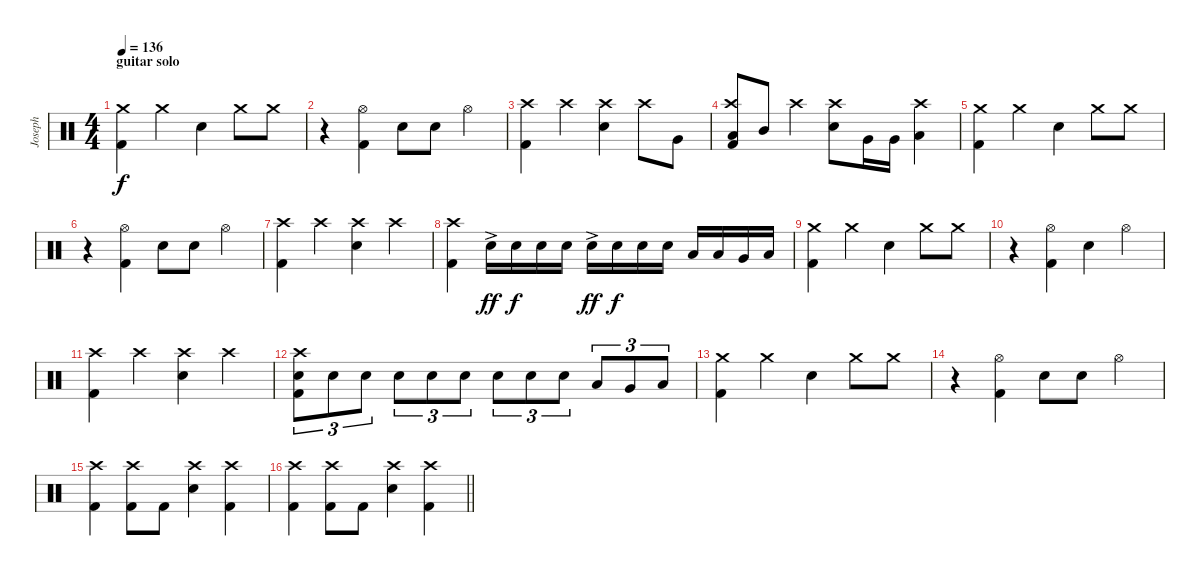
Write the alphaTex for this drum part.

\track ("Joseph" "Joseph") {instrument percussion}
\staff {score}
\articulation defaults
\ts (4 4)
\section ("" "guitar solo")
\tempo 136
\clef neutral
\ks c
("Crash medium (hit)" "Kick (hit) 2").4{dy f} "Crash medium (hit)".4 "Electric Snare (hit)".4 "Crash medium (hit)".8 "Crash medium (hit)".8 |
r.4 ("Kick (hit) 2" "Hi-Hat (open)").4 "Electric Snare (hit)".8 "Electric Snare (hit)".8 "Hi-Hat (open)".4 |
("Crash high (hit)" "Kick (hit) 2").4 "Crash high (hit)".4 ("Crash high (hit)" "Electric Snare (hit)").4 "Crash high (hit)".8 "Very Low Tom (hit)".8 |
("Crash high (hit)" "Kick (hit) 2" "Low Tom (hit)").8 "Mid Tom (hit)".8 "Crash high (hit)".4 ("Crash high (hit)" "Electric Snare (hit)").8 "Very Low Tom (hit)".16 "Very Low Tom (hit)".16 ("Crash high (hit)" "Low Tom (hit)").4 |
("Crash medium (hit)" "Kick (hit) 2").4 "Crash medium (hit)".4 "Electric Snare (hit)".4 "Crash medium (hit)".8 "Crash medium (hit)".8 |
r.4 ("Kick (hit) 2" "Hi-Hat (open)").4 "Electric Snare (hit)".8 "Electric Snare (hit)".8 "Hi-Hat (open)".4 |
("Crash high (hit)" "Kick (hit) 2").4 "Crash high (hit)".4 ("Crash high (hit)" "Electric Snare (hit)").4 "Crash high (hit)".4 |
("Crash high (hit)" "Kick (hit) 2").4 "Electric Snare (hit)"{ac}.16{dy ff} "Electric Snare (hit)".16{dy f} "Electric Snare (hit)".16 "Electric Snare (hit)".16 "Electric Snare (hit)"{ac}.16{dy ff} "Electric Snare (hit)".16{dy f} "Electric Snare (hit)".16 "Electric Snare (hit)".16 "Low Tom (hit)".16 "Low Tom (hit)".16 "Very Low Tom (hit)".16 "Low Floor Tom (hit)".16 |
("Crash medium (hit)" "Kick (hit) 2").4 "Crash medium (hit)".4 "Electric Snare (hit)".4 "Crash medium (hit)".8 "Crash medium (hit)".8 |
r.4 ("Kick (hit) 2" "Hi-Hat (open)").4 "Electric Snare (hit)".4 "Hi-Hat (open)".4 |
("Crash high (hit)" "Kick (hit) 2").4 "Crash high (hit)".4 ("Crash high (hit)" "Electric Snare (hit)").4 "Crash high (hit)".4 |
("Crash high (hit)" "Kick (hit) 2" "Electric Snare (hit)").8{tu (3 2)} "Electric Snare (hit)".8{tu (3 2)} "Electric Snare (hit)".8{tu (3 2)} "Electric Snare (hit)".8{tu (3 2)} "Electric Snare (hit)".8{tu (3 2)} "Electric Snare (hit)".8{tu (3 2)} "Electric Snare (hit)".8{tu (3 2)} "Electric Snare (hit)".8{tu (3 2)} "Electric Snare (hit)".8{tu (3 2)} "Low Tom (hit)".8{tu (3 2)} "Very Low Tom (hit)".8{tu (3 2)} "Low Floor Tom (hit)".8{tu (3 2)} |
("Crash medium (hit)" "Kick (hit) 2").4 "Crash medium (hit)".4 "Electric Snare (hit)".4 "Crash medium (hit)".8 "Crash medium (hit)".8 |
r.4 ("Kick (hit) 2" "Hi-Hat (open)").4 "Electric Snare (hit)".8 "Electric Snare (hit)".8 "Hi-Hat (open)".4 |
("Crash high (hit)" "Kick (hit) 2").4 ("Crash high (hit)" "Kick (hit) 2").8 "Kick (hit) 2".8 ("Crash high (hit)" "Electric Snare (hit)").4 ("Crash high (hit)" "Kick (hit) 2").4 |
\barLineRight lightlight
("Crash high (hit)" "Kick (hit) 2").4 ("Crash high (hit)" "Kick (hit) 2").8 "Kick (hit) 2".8 ("Crash high (hit)" "Electric Snare (hit)").4 ("Crash high (hit)" "Kick (hit) 2").4
